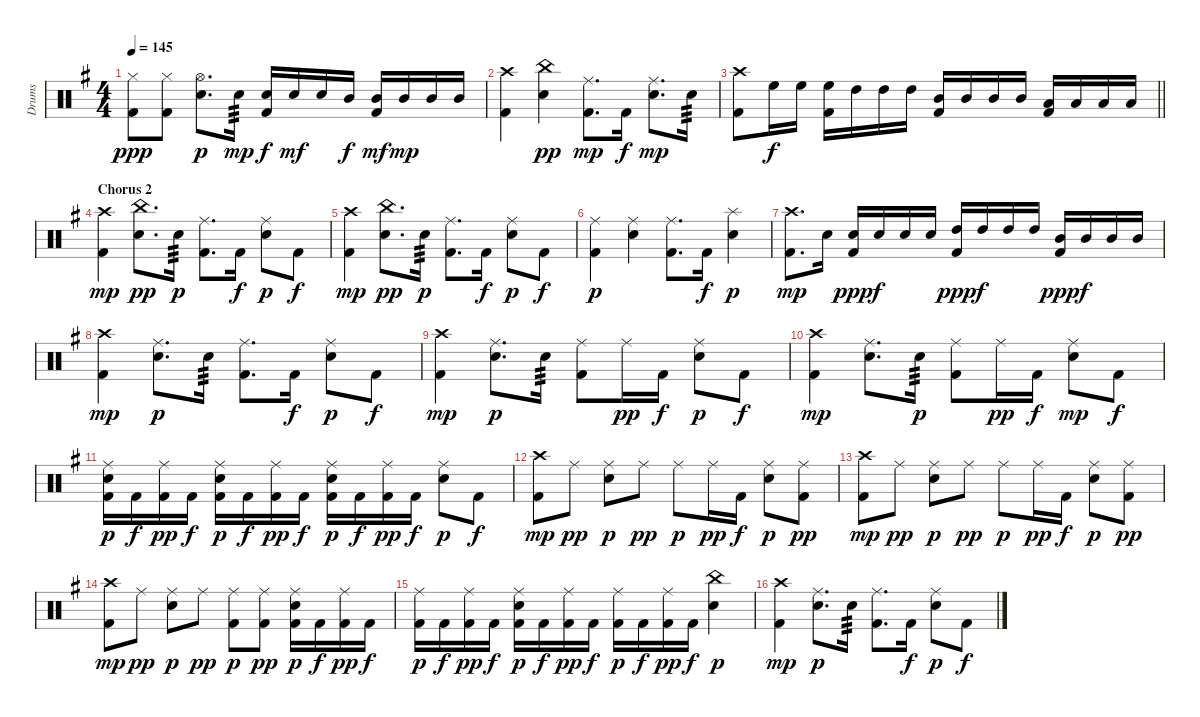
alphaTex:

\track ("Drums" "Drums") {instrument percussion}
\staff {score}
\articulation defaults
\ts (4 4)
\tempo 145
\clef neutral
\ks g
("Hi-Hat (closed)" "Kick (hit) 2").8{dy ppp} ("Hi-Hat (closed)" "Kick (hit) 2").8 ("Hi-Hat (open)" "Electric Snare (hit)").8{d dy p} "Electric Snare (hit)".16{tp 3 dy mp} ("Electric Snare (hit)" "Kick (hit) 2").16{dy f} "Electric Snare (hit)".16{dy mf} "Electric Snare (hit)".16 "Mid Tom (hit)".16{dy f} ("Mid Tom (hit)" "Kick (hit) 2").16{dy mf} "Mid Tom (hit)".16{dy mp} "Mid Tom (hit)".16 "Mid Tom (hit)".16 |
("Kick (hit) 2" "Crash high (hit)").4 ("Electric Snare (hit)" "China (hit)").4{dy pp} ("Kick (hit) 2" "Ride (middle)").8{d dy mp} "Kick (hit) 2".16{dy f} ("Electric Snare (hit)" "Ride (middle)").8{d dy mp} "Electric Snare (hit)".16{tp 3} |
\barLineRight lightlight
("Kick (hit) 2" "Crash high (hit)").8 "High Floor Tom (hit)".16{dy f} "High Floor Tom (hit)".16 ("High Floor Tom (hit)" "Kick (hit) 2").16 "High Tom (hit)".16 "High Tom (hit)".16 "High Tom (hit)".16 ("Mid Tom (hit)" "Kick (hit) 2").16 "Mid Tom (hit)".16 "Mid Tom (hit)".16 "Mid Tom (hit)".16 ("Low Tom (hit)" "Kick (hit) 2").16 "Low Tom (hit)".16 "Low Tom (hit)".16 "Low Tom (hit)".16 |
\section ("" "Chorus 2")
("Kick (hit) 2" "Crash high (hit)").4{dy mp} ("Electric Snare (hit)" "China (hit)").8{d dy pp} "Electric Snare (hit)".16{tp 3 dy p} ("Kick (hit) 2" "Ride (middle)").8{d} "Kick (hit) 2".16{dy f} ("Electric Snare (hit)" "Ride (middle)").8{dy p} "Kick (hit) 2".8{dy f} |
("Kick (hit) 2" "Crash high (hit)").4{dy mp} ("Electric Snare (hit)" "China (hit)").8{d dy pp} "Electric Snare (hit)".16{tp 3 dy p} ("Kick (hit) 2" "Ride (middle)").8{d} "Kick (hit) 2".16{dy f} ("Electric Snare (hit)" "Ride (middle)").8{dy p} "Kick (hit) 2".8{dy f} |
("Kick (hit) 2" "Ride (middle)").4{dy p} ("Electric Snare (hit)" "Ride (middle)").4 ("Kick (hit) 2" "Ride (middle)").8{d} "Kick (hit) 2".16{dy f} ("Electric Snare (hit)" "Splash (hit)").4{dy p} |
("Kick (hit) 2" "Crash high (hit)").8{d dy mp} "Electric Snare (hit)".16 ("Electric Snare (hit)" "Kick (hit) 2").16{dy ppp} "Electric Snare (hit)".16{dy f} "Electric Snare (hit)".16 "Electric Snare (hit)".16 ("High Tom (hit)" "Kick (hit) 2").16{dy ppp} "High Tom (hit)".16{dy f} "High Tom (hit)".16 "High Tom (hit)".16 ("Mid Tom (hit)" "Kick (hit) 2").16{dy ppp} "Mid Tom (hit)".16{dy f} "Mid Tom (hit)".16 "Mid Tom (hit)".16 |
("Kick (hit) 2" "Crash high (hit)").4{dy mp} ("Electric Snare (hit)" "Ride (middle)").8{d dy p} "Electric Snare (hit)".16{tp 3} ("Kick (hit) 2" "Ride (middle)").8{d} "Kick (hit) 2".16{dy f} ("Electric Snare (hit)" "Ride (middle)").8{dy p} "Kick (hit) 2".8{dy f} |
("Kick (hit) 2" "Crash high (hit)").4{dy mp} ("Electric Snare (hit)" "Ride (middle)").8{d dy p} "Electric Snare (hit)".16{tp 3} ("Kick (hit) 2" "Ride (middle)").8 "Ride (middle)".16{dy pp} "Kick (hit) 2".16{dy f} ("Electric Snare (hit)" "Ride (middle)").8{dy p} "Kick (hit) 2".8{dy f} |
("Kick (hit) 2" "Crash high (hit)").4{dy mp} ("Electric Snare (hit)" "Ride (middle)").8{d} "Electric Snare (hit)".16{tp 3 dy p} ("Kick (hit) 2" "Ride (middle)").8 "Ride (middle)".16{dy pp} "Kick (hit) 2".16{dy f} ("Electric Snare (hit)" "Ride (middle)").8{dy mp} "Kick (hit) 2".8{dy f} |
("Kick (hit) 2" "Electric Snare (hit)" "Ride (middle)").16{dy p} "Kick (hit) 2".16{dy f} ("Kick (hit) 2" "Ride (middle)").16{dy pp} "Kick (hit) 2".16{dy f} ("Kick (hit) 2" "Electric Snare (hit)" "Ride (middle)").16{dy p} "Kick (hit) 2".16{dy f} ("Kick (hit) 2" "Ride (middle)").16{dy pp} "Kick (hit) 2".16{dy f} ("Kick (hit) 2" "Electric Snare (hit)" "Ride (middle)").16{dy p} "Kick (hit) 2".16{dy f} ("Kick (hit) 2" "Ride (middle)").16{dy pp} "Kick (hit) 2".16{dy f} ("Electric Snare (hit)" "Ride (middle)").8{dy p} "Kick (hit) 2".8{dy f} |
("Crash high (hit)" "Kick (hit) 2").8{dy mp} "Ride (middle)".8{dy pp} ("Ride (middle)" "Electric Snare (hit)").8{dy p} "Ride (middle)".8{dy pp} "Ride (middle)".8{dy p} "Ride (middle)".16{dy pp} "Kick (hit) 2".16{dy f} ("Ride (middle)" "Electric Snare (hit)").8{dy p} ("Ride (middle)" "Kick (hit) 2").8{dy pp} |
("Crash high (hit)" "Kick (hit) 2").8{dy mp} "Ride (middle)".8{dy pp} ("Ride (middle)" "Electric Snare (hit)").8{dy p} "Ride (middle)".8{dy pp} "Ride (middle)".8{dy p} "Ride (middle)".16{dy pp} "Kick (hit) 2".16{dy f} ("Ride (middle)" "Electric Snare (hit)").8{dy p} ("Ride (middle)" "Kick (hit) 2").8{dy pp} |
("Crash high (hit)" "Kick (hit) 2").8{dy mp} "Ride (middle)".8{dy pp} ("Ride (middle)" "Electric Snare (hit)").8{dy p} "Ride (middle)".8{dy pp} ("Ride (middle)" "Kick (hit) 2").8{dy p} ("Ride (middle)" "Kick (hit) 2").8{dy pp} ("Electric Snare (hit)" "Kick (hit) 2" "Ride (middle)").16{dy p} "Kick (hit) 2".16{dy f} ("Kick (hit) 2" "Ride (middle)").16{dy pp} "Kick (hit) 2".16{dy f} |
("Kick (hit) 2" "Ride (middle)").16{dy p} "Kick (hit) 2".16{dy f} ("Kick (hit) 2" "Ride (middle)").16{dy pp} "Kick (hit) 2".16{dy f} ("Kick (hit) 2" "Electric Snare (hit)" "Ride (middle)").16{dy p} "Kick (hit) 2".16{dy f} ("Kick (hit) 2" "Ride (middle)").16{dy pp} "Kick (hit) 2".16{dy f} ("Kick (hit) 2" "Ride (middle)").16{dy p} "Kick (hit) 2".16{dy f} ("Kick (hit) 2" "Ride (middle)").16{dy pp} "Kick (hit) 2".16{dy f} ("China (hit)" "Electric Snare (hit)").4{dy p} |
("Kick (hit) 2" "Crash high (hit)").4{dy mp} ("Electric Snare (hit)" "Ride (middle)").8{d dy p} "Electric Snare (hit)".16{tp 3} ("Kick (hit) 2" "Ride (middle)").8{d} "Kick (hit) 2".16{dy f} ("Electric Snare (hit)" "Ride (middle)").8{dy p} "Kick (hit) 2".8{dy f}
